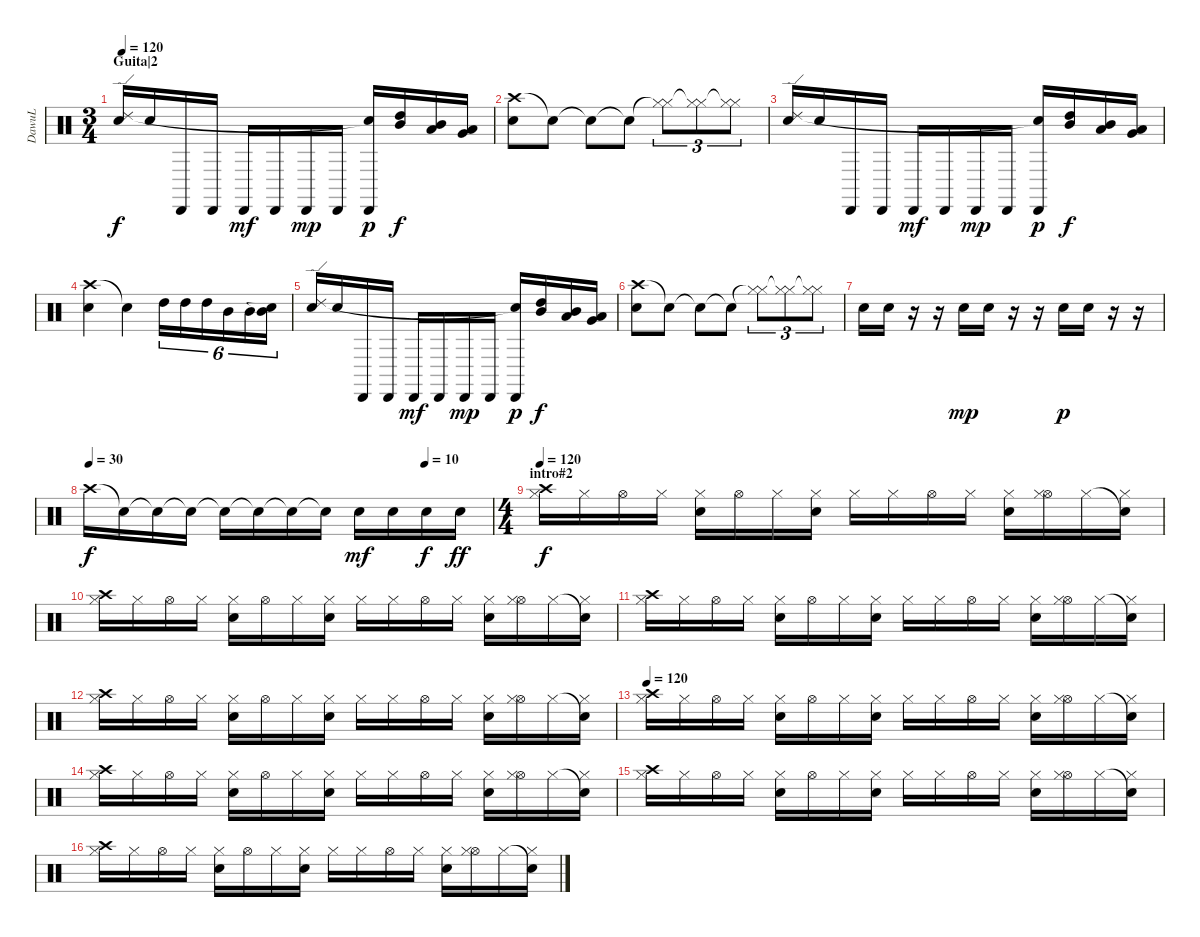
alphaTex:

\track ("DawuL" "DawuL") {instrument percussion}
\staff {score}
\articulation defaults
\ts (3 4)
\section ("" "Guita|2")
\tempo 120
\clef neutral
\ks c
("Electric Snare (hit)" "Ride (edge) 2").16{dy f balance 8} "Electric Snare (hit)".16 "Cabasa (hit)".16{balance 0} "Cabasa (hit)".16{balance 16} "Cabasa (hit)".16{dy mf balance 0} "Cabasa (hit)".16{balance 16} "Cabasa (hit)".16{dy mp balance 0} "Cabasa (hit)".16{balance 16} ("Cabasa (hit)" "Snare (hit)"{t}).16{dy p balance 0} ("High Tom (hit)" "Mid Tom (hit)").16{dy f balance 8} ("Mid Tom (hit)" "Low Tom (hit)").16 ("Low Tom (hit)" "Very Low Tom (hit)").16 |
("Crash high (hit)" "Electric Snare (hit)").8 "Snare (hit)"{t}.8 "Snare (hit)"{t}.8 "Snare (hit)"{t}.8 ("Hi-Hat (closed)"{t} "Hi-Hat (closed)").8{tu (3 2)} ("Hi-Hat (closed)"{t} "Hi-Hat (closed)").8{tu (3 2)} ("Hi-Hat (closed)"{t} "Hi-Hat (closed)").8{tu (3 2)} |
("Electric Snare (hit)" "Ride (edge) 2").16{balance 8} "Electric Snare (hit)".16 "Cabasa (hit)".16{balance 0} "Cabasa (hit)".16{balance 16} "Cabasa (hit)".16{dy mf balance 0} "Cabasa (hit)".16{balance 16} "Cabasa (hit)".16{dy mp balance 0} "Cabasa (hit)".16{balance 16} ("Cabasa (hit)" "Snare (hit)"{t}).16{dy p balance 0} ("High Tom (hit)" "Mid Tom (hit)").16{dy f balance 8} ("Mid Tom (hit)" "Low Tom (hit)").16 ("Low Tom (hit)" "Very Low Tom (hit)").16 |
("Crash high (hit)" "Electric Snare (hit)").4 "Snare (hit)"{t}.4 "High Tom (hit)".16{tu (6 4)} "High Tom (hit)".16{tu (6 4)} "High Tom (hit)".16{tu (6 4)} "Mid Tom (hit)".16{tu (6 4)} "Mid Tom (hit)".16{tu (6 4)} ("Snare (hit)"{t} "Mid Tom (hit)").16{tu (6 4)} |
("Electric Snare (hit)" "Ride (edge) 2").16{balance 8} "Electric Snare (hit)".16 "Cabasa (hit)".16{balance 0} "Cabasa (hit)".16{balance 16} "Cabasa (hit)".16{dy mf balance 0} "Cabasa (hit)".16{balance 16} "Cabasa (hit)".16{dy mp balance 0} "Cabasa (hit)".16{balance 16} ("Cabasa (hit)" "Snare (hit)"{t}).16{dy p balance 0} ("High Tom (hit)" "Mid Tom (hit)").16{dy f balance 8} ("Mid Tom (hit)" "Low Tom (hit)").16 ("Low Tom (hit)" "Very Low Tom (hit)").16 |
("Crash high (hit)" "Electric Snare (hit)").8 "Snare (hit)"{t}.8 "Snare (hit)"{t}.8 "Snare (hit)"{t}.8 ("Hi-Hat (closed)"{t} "Hi-Hat (closed)").8{tu (3 2)} ("Hi-Hat (closed)"{t} "Hi-Hat (closed)").8{tu (3 2)} ("Hi-Hat (closed)"{t} "Hi-Hat (closed)").8{tu (3 2)} |
"Electric Snare (hit)".16 "Electric Snare (hit)".16 r.16 r.16 "Electric Snare (hit)".16{dy mp} "Electric Snare (hit)".16 r.16 r.16 "Electric Snare (hit)".16{dy p} "Electric Snare (hit)".16 r.16 r.16 |
\tempo 30
\tempo (10 0.8333333333333334)
"Crash high (hit)".16{dy f} "Snare (hit)"{t}.16 "Snare (hit)"{t}.16 "Snare (hit)"{t}.16 "Snare (hit)"{t}.16 "Snare (hit)"{t}.16 "Snare (hit)"{t}.16 "Snare (hit)"{t}.16 "Electric Snare (hit)".16{dy mf} "Electric Snare (hit)".16 "Electric Snare (hit)".16{dy f} "Electric Snare (hit)".16{dy ff} |
\ts (4 4)
\section ("" "intro#2")
\tempo 120
("Crash high (hit)" "Hi-Hat (closed)").16{dy f} "Hi-Hat (closed)".16 "Hi-Hat (open)".16 "Hi-Hat (closed)".16 ("Electric Snare (hit)" "Hi-Hat (closed)").16 "Hi-Hat (open)".16 "Hi-Hat (closed)".16 ("Electric Snare (hit)" "Hi-Hat (closed)").16 "Hi-Hat (closed)".16 "Hi-Hat (closed)".16 "Hi-Hat (open)".16 "Hi-Hat (closed)".16 ("Electric Snare (hit)" "Hi-Hat (closed)").16 ("Hi-Hat (open)" "Hi-Hat (closed)").16 "Hi-Hat (closed)".16 ("Snare (hit)"{t} "Hi-Hat (closed)").16 |
("Crash high (hit)" "Hi-Hat (closed)").16 "Hi-Hat (closed)".16 "Hi-Hat (open)".16 "Hi-Hat (closed)".16 ("Electric Snare (hit)" "Hi-Hat (closed)").16 "Hi-Hat (open)".16 "Hi-Hat (closed)".16 ("Electric Snare (hit)" "Hi-Hat (closed)").16 "Hi-Hat (closed)".16 "Hi-Hat (closed)".16 "Hi-Hat (open)".16 "Hi-Hat (closed)".16 ("Electric Snare (hit)" "Hi-Hat (closed)").16 ("Hi-Hat (open)" "Hi-Hat (closed)").16 "Hi-Hat (closed)".16 ("Snare (hit)"{t} "Hi-Hat (closed)").16 |
("Crash high (hit)" "Hi-Hat (closed)").16 "Hi-Hat (closed)".16 "Hi-Hat (open)".16 "Hi-Hat (closed)".16 ("Electric Snare (hit)" "Hi-Hat (closed)").16 "Hi-Hat (open)".16 "Hi-Hat (closed)".16 ("Electric Snare (hit)" "Hi-Hat (closed)").16 "Hi-Hat (closed)".16 "Hi-Hat (closed)".16 "Hi-Hat (open)".16 "Hi-Hat (closed)".16 ("Electric Snare (hit)" "Hi-Hat (closed)").16 ("Hi-Hat (open)" "Hi-Hat (closed)").16 "Hi-Hat (closed)".16 ("Snare (hit)"{t} "Hi-Hat (closed)").16 |
("Crash high (hit)" "Hi-Hat (closed)").16 "Hi-Hat (closed)".16 "Hi-Hat (open)".16 "Hi-Hat (closed)".16 ("Electric Snare (hit)" "Hi-Hat (closed)").16 "Hi-Hat (open)".16 "Hi-Hat (closed)".16 ("Electric Snare (hit)" "Hi-Hat (closed)").16 "Hi-Hat (closed)".16 "Hi-Hat (closed)".16 "Hi-Hat (open)".16 "Hi-Hat (closed)".16 ("Electric Snare (hit)" "Hi-Hat (closed)").16 ("Hi-Hat (open)" "Hi-Hat (closed)").16 "Hi-Hat (closed)".16 ("Snare (hit)"{t} "Hi-Hat (closed)").16 |
\tempo 120
("Crash high (hit)" "Hi-Hat (closed)").16 "Hi-Hat (closed)".16 "Hi-Hat (open)".16 "Hi-Hat (closed)".16 ("Electric Snare (hit)" "Hi-Hat (closed)").16 "Hi-Hat (open)".16 "Hi-Hat (closed)".16 ("Electric Snare (hit)" "Hi-Hat (closed)").16 "Hi-Hat (closed)".16 "Hi-Hat (closed)".16 "Hi-Hat (open)".16 "Hi-Hat (closed)".16 ("Electric Snare (hit)" "Hi-Hat (closed)").16 ("Hi-Hat (open)" "Hi-Hat (closed)").16 "Hi-Hat (closed)".16 ("Snare (hit)"{t} "Hi-Hat (closed)").16 |
("Crash high (hit)" "Hi-Hat (closed)").16 "Hi-Hat (closed)".16 "Hi-Hat (open)".16 "Hi-Hat (closed)".16 ("Electric Snare (hit)" "Hi-Hat (closed)").16 "Hi-Hat (open)".16 "Hi-Hat (closed)".16 ("Electric Snare (hit)" "Hi-Hat (closed)").16 "Hi-Hat (closed)".16 "Hi-Hat (closed)".16 "Hi-Hat (open)".16 "Hi-Hat (closed)".16 ("Electric Snare (hit)" "Hi-Hat (closed)").16 ("Hi-Hat (open)" "Hi-Hat (closed)").16 "Hi-Hat (closed)".16 ("Snare (hit)"{t} "Hi-Hat (closed)").16 |
("Crash high (hit)" "Hi-Hat (closed)").16 "Hi-Hat (closed)".16 "Hi-Hat (open)".16 "Hi-Hat (closed)".16 ("Electric Snare (hit)" "Hi-Hat (closed)").16 "Hi-Hat (open)".16 "Hi-Hat (closed)".16 ("Electric Snare (hit)" "Hi-Hat (closed)").16 "Hi-Hat (closed)".16 "Hi-Hat (closed)".16 "Hi-Hat (open)".16 "Hi-Hat (closed)".16 ("Electric Snare (hit)" "Hi-Hat (closed)").16 ("Hi-Hat (open)" "Hi-Hat (closed)").16 "Hi-Hat (closed)".16 ("Snare (hit)"{t} "Hi-Hat (closed)").16 |
("Crash high (hit)" "Hi-Hat (closed)").16 "Hi-Hat (closed)".16 "Hi-Hat (open)".16 "Hi-Hat (closed)".16 ("Electric Snare (hit)" "Hi-Hat (closed)").16 "Hi-Hat (open)".16 "Hi-Hat (closed)".16 ("Electric Snare (hit)" "Hi-Hat (closed)").16 "Hi-Hat (closed)".16 "Hi-Hat (closed)".16 "Hi-Hat (open)".16 "Hi-Hat (closed)".16 ("Electric Snare (hit)" "Hi-Hat (closed)").16 ("Hi-Hat (open)" "Hi-Hat (closed)").16 "Hi-Hat (closed)".16 ("Snare (hit)"{t} "Hi-Hat (closed)").16
